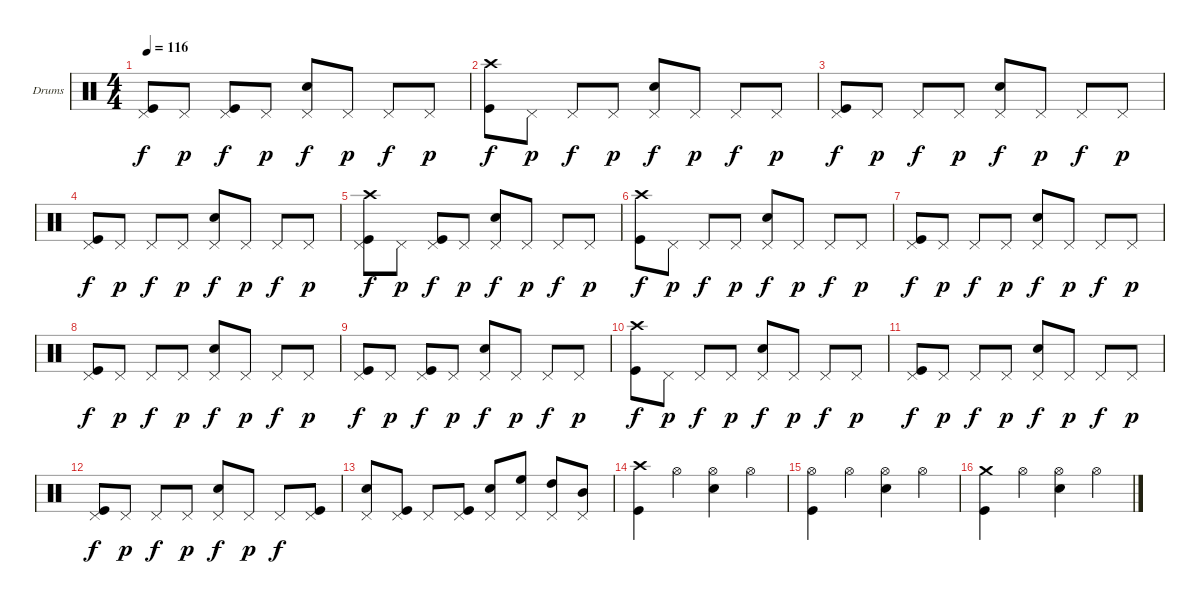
\bracketExtendMode nobrackets
\firstSystemTrackNameOrientation horizontal
\otherSystemsTrackNameOrientation horizontal
\track ("Drumkit" "Drums") {instrument percussion}
\staff {score}
\articulation defaults
\ts (4 4)
\tempo 116
\clef neutral
\ks c
("Kick (hit)" "Pedal Hi-Hat (hit)").8{dy f} "Pedal Hi-Hat (hit)".8{dy p} ("Kick (hit)" "Pedal Hi-Hat (hit)").8{dy f} "Pedal Hi-Hat (hit)".8{dy p} ("Pedal Hi-Hat (hit)" "Snare (hit) 2").8{dy f} "Pedal Hi-Hat (hit)".8{dy p} "Pedal Hi-Hat (hit)".8{dy f} "Pedal Hi-Hat (hit)".8{dy p} |
("Kick (hit)" "Crash high (hit)").8{dy f} "Pedal Hi-Hat (hit)".8{dy p} "Pedal Hi-Hat (hit)".8{dy f} "Pedal Hi-Hat (hit)".8{dy p} ("Pedal Hi-Hat (hit)" "Snare (hit) 2").8{dy f} "Pedal Hi-Hat (hit)".8{dy p} "Pedal Hi-Hat (hit)".8{dy f} "Pedal Hi-Hat (hit)".8{dy p} |
("Kick (hit)" "Pedal Hi-Hat (hit)").8{dy f} "Pedal Hi-Hat (hit)".8{dy p} "Pedal Hi-Hat (hit)".8{dy f} "Pedal Hi-Hat (hit)".8{dy p} ("Pedal Hi-Hat (hit)" "Snare (hit) 2").8{dy f} "Pedal Hi-Hat (hit)".8{dy p} "Pedal Hi-Hat (hit)".8{dy f} "Pedal Hi-Hat (hit)".8{dy p} |
("Kick (hit)" "Pedal Hi-Hat (hit)").8{dy f} "Pedal Hi-Hat (hit)".8{dy p} "Pedal Hi-Hat (hit)".8{dy f} "Pedal Hi-Hat (hit)".8{dy p} ("Pedal Hi-Hat (hit)" "Snare (hit) 2").8{dy f} "Pedal Hi-Hat (hit)".8{dy p} "Pedal Hi-Hat (hit)".8{dy f} "Pedal Hi-Hat (hit)".8{dy p} |
("Kick (hit)" "Crash high (hit)" "Pedal Hi-Hat (hit)").8{dy f} "Pedal Hi-Hat (hit)".8{dy p} ("Kick (hit)" "Pedal Hi-Hat (hit)").8{dy f} "Pedal Hi-Hat (hit)".8{dy p} ("Pedal Hi-Hat (hit)" "Snare (hit) 2").8{dy f} "Pedal Hi-Hat (hit)".8{dy p} "Pedal Hi-Hat (hit)".8{dy f} "Pedal Hi-Hat (hit)".8{dy p} |
("Kick (hit)" "Crash high (hit)").8{dy f} "Pedal Hi-Hat (hit)".8{dy p} "Pedal Hi-Hat (hit)".8{dy f} "Pedal Hi-Hat (hit)".8{dy p} ("Pedal Hi-Hat (hit)" "Snare (hit) 2").8{dy f} "Pedal Hi-Hat (hit)".8{dy p} "Pedal Hi-Hat (hit)".8{dy f} "Pedal Hi-Hat (hit)".8{dy p} |
("Kick (hit)" "Pedal Hi-Hat (hit)").8{dy f} "Pedal Hi-Hat (hit)".8{dy p} "Pedal Hi-Hat (hit)".8{dy f} "Pedal Hi-Hat (hit)".8{dy p} ("Pedal Hi-Hat (hit)" "Snare (hit) 2").8{dy f} "Pedal Hi-Hat (hit)".8{dy p} "Pedal Hi-Hat (hit)".8{dy f} "Pedal Hi-Hat (hit)".8{dy p} |
("Kick (hit)" "Pedal Hi-Hat (hit)").8{dy f} "Pedal Hi-Hat (hit)".8{dy p} "Pedal Hi-Hat (hit)".8{dy f} "Pedal Hi-Hat (hit)".8{dy p} ("Pedal Hi-Hat (hit)" "Snare (hit) 2").8{dy f} "Pedal Hi-Hat (hit)".8{dy p} "Pedal Hi-Hat (hit)".8{dy f} "Pedal Hi-Hat (hit)".8{dy p} |
("Kick (hit)" "Pedal Hi-Hat (hit)").8{dy f} "Pedal Hi-Hat (hit)".8{dy p} ("Kick (hit)" "Pedal Hi-Hat (hit)").8{dy f} "Pedal Hi-Hat (hit)".8{dy p} ("Pedal Hi-Hat (hit)" "Snare (hit) 2").8{dy f} "Pedal Hi-Hat (hit)".8{dy p} "Pedal Hi-Hat (hit)".8{dy f} "Pedal Hi-Hat (hit)".8{dy p} |
("Kick (hit)" "Crash high (hit)").8{dy f} "Pedal Hi-Hat (hit)".8{dy p} "Pedal Hi-Hat (hit)".8{dy f} "Pedal Hi-Hat (hit)".8{dy p} ("Pedal Hi-Hat (hit)" "Snare (hit) 2").8{dy f} "Pedal Hi-Hat (hit)".8{dy p} "Pedal Hi-Hat (hit)".8{dy f} "Pedal Hi-Hat (hit)".8{dy p} |
("Kick (hit)" "Pedal Hi-Hat (hit)").8{dy f} "Pedal Hi-Hat (hit)".8{dy p} "Pedal Hi-Hat (hit)".8{dy f} "Pedal Hi-Hat (hit)".8{dy p} ("Pedal Hi-Hat (hit)" "Snare (hit) 2").8{dy f} "Pedal Hi-Hat (hit)".8{dy p} "Pedal Hi-Hat (hit)".8{dy f} "Pedal Hi-Hat (hit)".8{dy p} |
("Kick (hit)" "Pedal Hi-Hat (hit)").8{dy f} "Pedal Hi-Hat (hit)".8{dy p} "Pedal Hi-Hat (hit)".8{dy f} "Pedal Hi-Hat (hit)".8{dy p} ("Pedal Hi-Hat (hit)" "Snare (hit) 2").8{dy f} "Pedal Hi-Hat (hit)".8{dy p} "Pedal Hi-Hat (hit)".8{dy f} ("Kick (hit)" "Pedal Hi-Hat (hit)").8 |
("Pedal Hi-Hat (hit)" "Snare (hit) 2").8 ("Kick (hit)" "Pedal Hi-Hat (hit)").8 "Pedal Hi-Hat (hit)".8 ("Kick (hit)" "Pedal Hi-Hat (hit)").8 ("Pedal Hi-Hat (hit)" "Snare (hit) 2").8 ("High Floor Tom (hit)" "Pedal Hi-Hat (hit)").8 ("High Tom (hit)" "Pedal Hi-Hat (hit)").8 ("Mid Tom (hit)" "Pedal Hi-Hat (hit)").8 |
("Kick (hit)" "Crash high (hit)").4 "Hi-Hat (open)".4 ("Hi-Hat (open)" "Snare (hit) 2").4 "Hi-Hat (open)".4 |
("Kick (hit)" "Hi-Hat (open)").4 "Hi-Hat (open)".4 ("Hi-Hat (open)" "Snare (hit) 2").4 "Hi-Hat (open)".4 |
("Kick (hit)" "Crash medium (hit)").4 "Hi-Hat (open)".4 ("Hi-Hat (open)" "Snare (hit) 2").4 "Hi-Hat (open)".4
